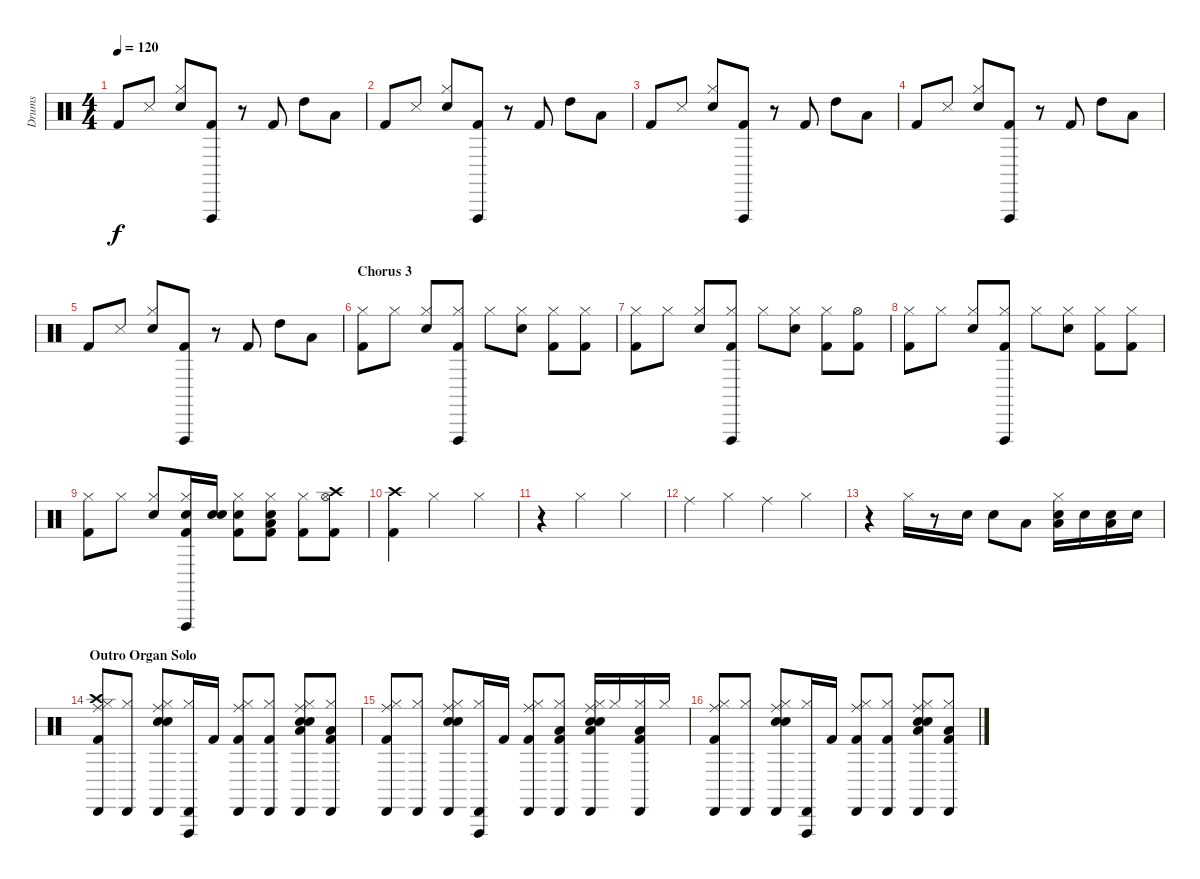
\track ("Drums" "Drums") {instrument percussion}
\staff {score}
\articulation defaults
\ts (4 4)
\tempo 120
\clef neutral
\ks c "Kick (hit) 2".8{dy f} "Snare (side stick) 3".8
("Snare (hit) 2" "Hi-Hat (closed)").8 ("Kick (hit) 2" "Vibraslap (hit)").8 r.8 "Kick (hit) 2".8 "High Tom (hit)".8 "Low Tom (hit)".8 |
"Kick (hit) 2".8 "Snare (side stick) 3".8 ("Snare (hit) 2" "Hi-Hat (closed)").8 ("Kick (hit) 2" "Vibraslap (hit)").8 r.8 "Kick (hit) 2".8 "High Tom (hit)".8 "Low Tom (hit)".8 |
"Kick (hit) 2".8 "Snare (side stick) 3".8 ("Snare (hit) 2" "Hi-Hat (closed)").8 ("Kick (hit) 2" "Vibraslap (hit)").8 r.8 "Kick (hit) 2".8 "High Tom (hit)".8 "Low Tom (hit)".8 |
"Kick (hit) 2".8 "Snare (side stick) 3".8 ("Snare (hit) 2" "Hi-Hat (closed)").8 ("Kick (hit) 2" "Vibraslap (hit)").8 r.8 "Kick (hit) 2".8 "High Tom (hit)".8 "Low Tom (hit)".8 |
"Kick (hit) 2".8 "Snare (side stick) 3".8 ("Snare (hit) 2" "Hi-Hat (closed)").8 ("Kick (hit) 2" "Vibraslap (hit)").8 r.8 "Kick (hit) 2".8 "High Tom (hit)".8 "Low Tom (hit)".8 |
\section ("" "Chorus 3")
("Kick (hit) 2" "Hi-Hat (closed)").8 "Hi-Hat (closed)".8 ("Snare (hit) 2" "Hi-Hat (closed)").8 ("Kick (hit) 2" "Hi-Hat (closed)" "Vibraslap (hit)").8 "Hi-Hat (closed)".8 ("Snare (hit) 2" "Hi-Hat (closed)").8 ("Kick (hit) 2" "Hi-Hat (closed)").8 ("Kick (hit) 2" "Hi-Hat (closed)").8 |
("Kick (hit) 2" "Hi-Hat (closed)").8 "Hi-Hat (closed)".8 ("Snare (hit) 2" "Hi-Hat (closed)").8 ("Kick (hit) 2" "Hi-Hat (closed)" "Vibraslap (hit)").8 "Hi-Hat (closed)".8 ("Snare (hit) 2" "Hi-Hat (closed)").8 ("Kick (hit) 2" "Hi-Hat (closed)").8 ("Kick (hit) 2" "Hi-Hat (open)").8 |
("Kick (hit) 2" "Hi-Hat (closed)").8 "Hi-Hat (closed)".8 ("Snare (hit) 2" "Hi-Hat (closed)").8 ("Kick (hit) 2" "Hi-Hat (closed)" "Vibraslap (hit)").8 "Hi-Hat (closed)".8 ("Snare (hit) 2" "Hi-Hat (closed)").8 ("Kick (hit) 2" "Hi-Hat (closed)").8 ("Kick (hit) 2" "Hi-Hat (closed)").8 |
("Kick (hit) 2" "Hi-Hat (closed)").8 "Hi-Hat (closed)".8 ("Snare (hit) 2" "Hi-Hat (closed)").8 ("Kick (hit) 2" "Snare (hit) 2" "Hi-Hat (closed)" "Vibraslap (hit)").16 ("Snare (hit) 2" "Snare (hit) 2").16 ("Snare (hit) 2" "Kick (hit) 2" "Hi-Hat (closed)").8 ("Kick (hit) 2" "Snare (hit) 2" "Hi-Hat (closed)" "Low Floor Tom (hit)").8 ("Kick (hit) 2" "Hi-Hat (closed)").8 ("Kick (hit) 2" "Crash high (hit)" "Hi-Hat (open)").8 |
("Kick (hit) 2" "Crash high (hit)").4 "Hi-Hat (closed)".2 "Hi-Hat (closed)".4 |
r.4 "Hi-Hat (closed)".2 "Hi-Hat (closed)".4 |
"Ride (middle)".4 "Hi-Hat (closed)".4 "Ride (middle)".4 "Hi-Hat (closed)".4 |
r.4 "Hi-Hat (closed)".16 r.8 "Snare (hit) 2".16 "Snare (hit) 2".8 "Low Tom (hit)".8 ("Snare (hit) 2" "Hi-Hat (closed)" "Low Floor Tom (hit)").16 "Snare (hit) 2".16 ("Snare (hit) 2" "Low Floor Tom (hit)").16 "Snare (hit) 2".16 |
\section ("" "Outro Organ Solo")
("Kick (hit) 2" "Hi-Hat (closed)" "Crash high (hit)" "Ride (middle)" "Cabasa (hit)").8 ("Hi-Hat (closed)" "Cabasa (hit)").8 ("Snare (hit) 2" "Hi-Hat (closed)" "Ride (middle)" "Cabasa (hit)" "Hand Clap (hit)").8 ("Hi-Hat (closed)" "Cabasa (hit)" "Vibraslap (hit)").16 "Kick (hit) 2".16 ("Kick (hit) 2" "Hi-Hat (closed)" "Ride (middle)" "Cabasa (hit)").8 ("Kick (hit) 2" "Hi-Hat (closed)" "Cabasa (hit)").8 ("Snare (hit) 2" "Hi-Hat (closed)" "Ride (middle)" "Low Tom (hit)" "Cabasa (hit)" "Hand Clap (hit)").8 ("Kick (hit) 2" "Hi-Hat (closed)" "Low Tom (hit)" "Cabasa (hit)").8 |
("Kick (hit) 2" "Hi-Hat (closed)" "Ride (middle)" "Cabasa (hit)").8 ("Hi-Hat (closed)" "Cabasa (hit)").8 ("Snare (hit) 2" "Hi-Hat (closed)" "Ride (middle)" "Cabasa (hit)" "Hand Clap (hit)").8 ("Hi-Hat (closed)" "Cabasa (hit)" "Vibraslap (hit)").16 "Kick (hit) 2".16 ("Kick (hit) 2" "Hi-Hat (closed)" "Ride (middle)" "Cabasa (hit)").8 ("Kick (hit) 2" "Hi-Hat (closed)" "Low Tom (hit)" "Cabasa (hit)").8 ("Snare (hit) 2" "Hi-Hat (closed)" "Ride (middle)" "Low Tom (hit)" "Cabasa (hit)" "Hand Clap (hit)").16 "Hi-Hat (closed)".16 ("Kick (hit) 2" "Hi-Hat (closed)" "Low Tom (hit)" "Cabasa (hit)").16 "Hi-Hat (closed)".16 |
("Kick (hit) 2" "Hi-Hat (closed)" "Ride (middle)" "Cabasa (hit)").8 ("Hi-Hat (closed)" "Cabasa (hit)").8 ("Snare (hit) 2" "Hi-Hat (closed)" "Ride (middle)" "Cabasa (hit)" "Hand Clap (hit)").8 ("Hi-Hat (closed)" "Cabasa (hit)" "Vibraslap (hit)").16 "Kick (hit) 2".16 ("Kick (hit) 2" "Hi-Hat (closed)" "Ride (middle)" "Cabasa (hit)").8 ("Kick (hit) 2" "Hi-Hat (closed)" "Cabasa (hit)").8 ("Snare (hit) 2" "Hi-Hat (closed)" "Ride (middle)" "Low Tom (hit)" "Cabasa (hit)" "Hand Clap (hit)").8 ("Kick (hit) 2" "Hi-Hat (closed)" "Low Tom (hit)" "Cabasa (hit)").8
